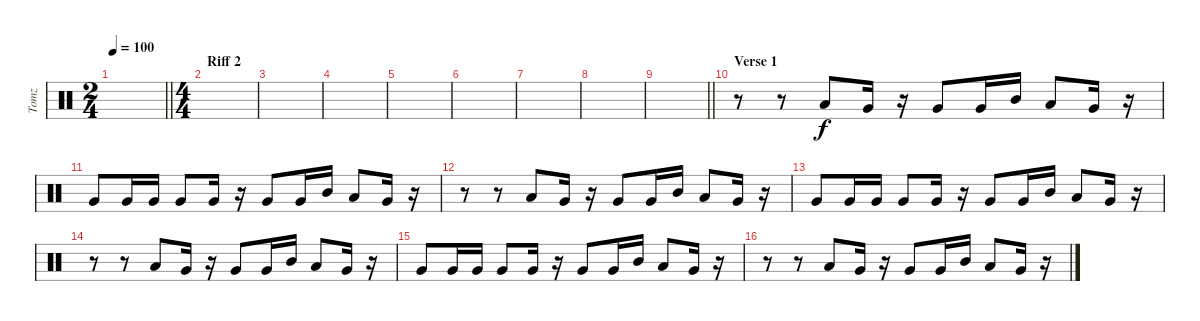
\track ("Tomz" "Tomz") {instrument percussion}
\staff {score}
\articulation defaults
\ts (2 4)
\tempo 100
\clef neutral
\barLineRight lightlight
\ks c
|
\ts (4 4)
\section ("" "Riff 2")
|
|
|
|
|
|
|
\barLineRight lightlight
|
\section ("" "Verse 1")
r.8 r.8 "Low Tom (hit)".8 "Very Low Tom (hit)".16 r.16 "Very Low Tom (hit)".8 "Very Low Tom (hit)".16 "Mid Tom (hit)".16 "Low Tom (hit)".8 "Very Low Tom (hit)".16 r.16 |
"Very Low Tom (hit)".8 "Very Low Tom (hit)".16 "Very Low Tom (hit)".16 "Very Low Tom (hit)".8 "Very Low Tom (hit)".16 r.16 "Very Low Tom (hit)".8 "Very Low Tom (hit)".16 "Mid Tom (hit)".16 "Low Tom (hit)".8 "Very Low Tom (hit)".16 r.16 |
r.8 r.8 "Low Tom (hit)".8 "Very Low Tom (hit)".16 r.16 "Very Low Tom (hit)".8 "Very Low Tom (hit)".16 "Mid Tom (hit)".16 "Low Tom (hit)".8 "Very Low Tom (hit)".16 r.16 |
"Very Low Tom (hit)".8 "Very Low Tom (hit)".16 "Very Low Tom (hit)".16 "Very Low Tom (hit)".8 "Very Low Tom (hit)".16 r.16 "Very Low Tom (hit)".8 "Very Low Tom (hit)".16 "Mid Tom (hit)".16 "Low Tom (hit)".8 "Very Low Tom (hit)".16 r.16 |
r.8 r.8 "Low Tom (hit)".8 "Very Low Tom (hit)".16 r.16 "Very Low Tom (hit)".8 "Very Low Tom (hit)".16 "Mid Tom (hit)".16 "Low Tom (hit)".8 "Very Low Tom (hit)".16 r.16 |
"Very Low Tom (hit)".8 "Very Low Tom (hit)".16 "Very Low Tom (hit)".16 "Very Low Tom (hit)".8 "Very Low Tom (hit)".16 r.16 "Very Low Tom (hit)".8 "Very Low Tom (hit)".16 "Mid Tom (hit)".16 "Low Tom (hit)".8 "Very Low Tom (hit)".16 r.16 |
r.8 r.8 "Low Tom (hit)".8 "Very Low Tom (hit)".16 r.16 "Very Low Tom (hit)".8 "Very Low Tom (hit)".16 "Mid Tom (hit)".16 "Low Tom (hit)".8 "Very Low Tom (hit)".16 r.16
